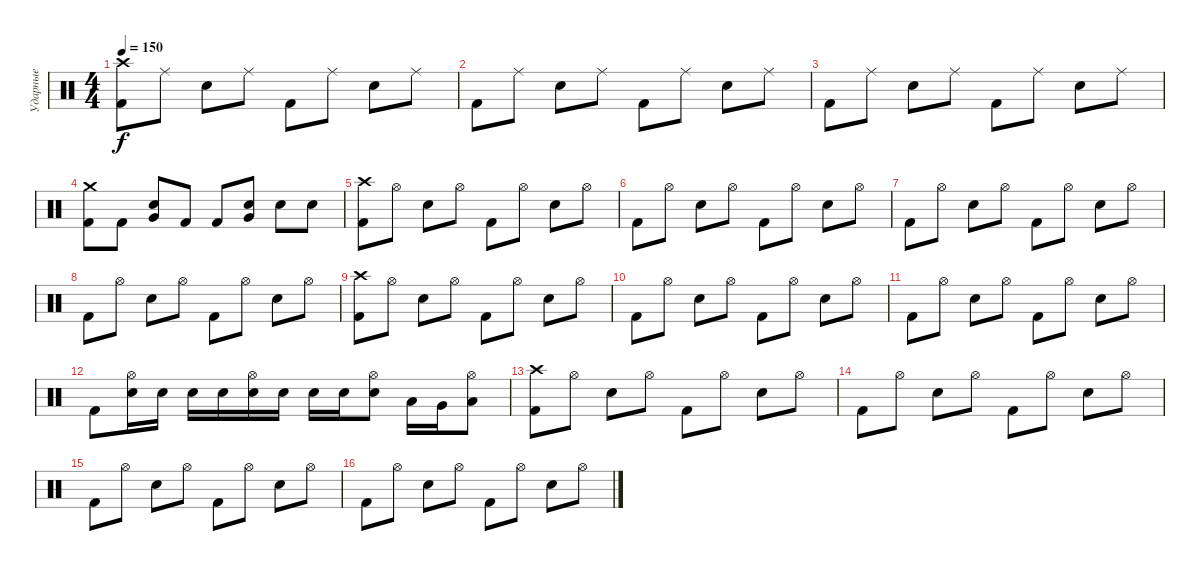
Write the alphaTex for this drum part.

\track ("Ударные" "Ударные") {instrument percussion}
\staff {score}
\articulation defaults
\ts (4 4)
\tempo 150
\clef neutral
\ks c
("Crash high (hit)" "Kick (hit) 2").8{dy f} "Ride (middle)".8 "Electric Snare (hit)".8 "Ride (middle)".8 "Kick (hit) 2".8 "Ride (middle)".8 "Electric Snare (hit)".8 "Ride (middle)".8 |
"Kick (hit) 2".8 "Ride (middle)".8 "Electric Snare (hit)".8 "Ride (middle)".8 "Kick (hit) 2".8 "Ride (middle)".8 "Electric Snare (hit)".8 "Ride (middle)".8 |
"Kick (hit) 2".8 "Ride (middle)".8 "Electric Snare (hit)".8 "Ride (middle)".8 "Kick (hit) 2".8 "Ride (middle)".8 "Electric Snare (hit)".8 "Ride (middle)".8 |
("Crash medium (hit)" "Kick (hit) 2").8 "Kick (hit) 2".8 ("Very Low Tom (hit)" "Electric Snare (hit)").8 "Kick (hit) 2".8 "Kick (hit) 2".8 ("Very Low Tom (hit)" "Electric Snare (hit)").8 "Electric Snare (hit)".8 "Electric Snare (hit)".8 |
("Crash high (hit)" "Kick (hit) 2").8 "Hi-Hat (open)".8 "Electric Snare (hit)".8 "Hi-Hat (open)".8 "Kick (hit) 2".8 "Hi-Hat (open)".8 "Electric Snare (hit)".8 "Hi-Hat (open)".8 |
"Kick (hit) 2".8 "Hi-Hat (open)".8 "Electric Snare (hit)".8 "Hi-Hat (open)".8 "Kick (hit) 2".8 "Hi-Hat (open)".8 "Electric Snare (hit)".8 "Hi-Hat (open)".8 |
"Kick (hit) 2".8 "Hi-Hat (open)".8 "Electric Snare (hit)".8 "Hi-Hat (open)".8 "Kick (hit) 2".8 "Hi-Hat (open)".8 "Electric Snare (hit)".8 "Hi-Hat (open)".8 |
"Kick (hit) 2".8 "Hi-Hat (open)".8 "Electric Snare (hit)".8 "Hi-Hat (open)".8 "Kick (hit) 2".8 "Hi-Hat (open)".8 "Electric Snare (hit)".8 "Hi-Hat (open)".8 |
("Crash high (hit)" "Kick (hit) 2").8 "Hi-Hat (open)".8 "Electric Snare (hit)".8 "Hi-Hat (open)".8 "Kick (hit) 2".8 "Hi-Hat (open)".8 "Electric Snare (hit)".8 "Hi-Hat (open)".8 |
"Kick (hit) 2".8 "Hi-Hat (open)".8 "Electric Snare (hit)".8 "Hi-Hat (open)".8 "Kick (hit) 2".8 "Hi-Hat (open)".8 "Electric Snare (hit)".8 "Hi-Hat (open)".8 |
"Kick (hit) 2".8 "Hi-Hat (open)".8 "Electric Snare (hit)".8 "Hi-Hat (open)".8 "Kick (hit) 2".8 "Hi-Hat (open)".8 "Electric Snare (hit)".8 "Hi-Hat (open)".8 |
"Kick (hit) 2".8 ("Hi-Hat (open)" "Electric Snare (hit)").16 "Electric Snare (hit)".16 "Electric Snare (hit)".16 "Electric Snare (hit)".16 ("Hi-Hat (open)" "Electric Snare (hit)").16 "Electric Snare (hit)".16 "Electric Snare (hit)".16 "Electric Snare (hit)".16 ("Hi-Hat (open)" "Electric Snare (hit)").8 "Low Tom (hit)".16 "Very Low Tom (hit)".16 ("Hi-Hat (open)" "Low Floor Tom (hit)").8 |
("Crash high (hit)" "Kick (hit) 2").8 "Hi-Hat (open)".8 "Electric Snare (hit)".8 "Hi-Hat (open)".8 "Kick (hit) 2".8 "Hi-Hat (open)".8 "Electric Snare (hit)".8 "Hi-Hat (open)".8 |
"Kick (hit) 2".8 "Hi-Hat (open)".8 "Electric Snare (hit)".8 "Hi-Hat (open)".8 "Kick (hit) 2".8 "Hi-Hat (open)".8 "Electric Snare (hit)".8 "Hi-Hat (open)".8 |
"Kick (hit) 2".8 "Hi-Hat (open)".8 "Electric Snare (hit)".8 "Hi-Hat (open)".8 "Kick (hit) 2".8 "Hi-Hat (open)".8 "Electric Snare (hit)".8 "Hi-Hat (open)".8 |
"Kick (hit) 2".8 "Hi-Hat (open)".8 "Electric Snare (hit)".8 "Hi-Hat (open)".8 "Kick (hit) 2".8 "Hi-Hat (open)".8 "Electric Snare (hit)".8 "Hi-Hat (open)".8
